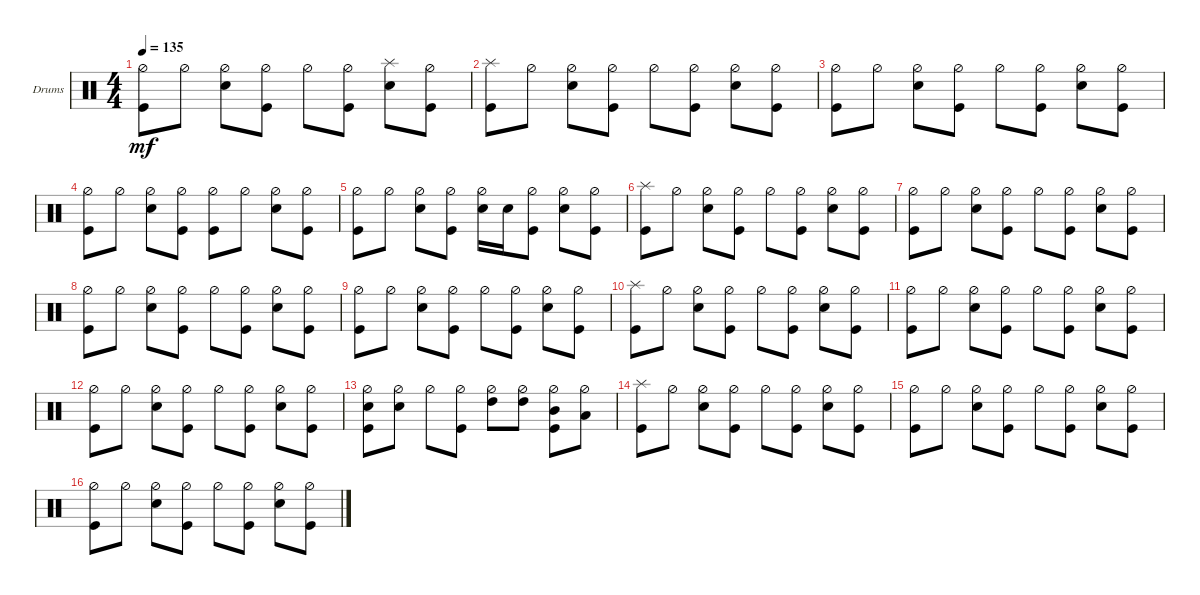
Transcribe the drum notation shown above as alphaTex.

\defaultSystemsLayout 4
\bracketExtendMode groupsimilarinstruments
\firstSystemTrackNameOrientation horizontal
\otherSystemsTrackNameOrientation horizontal
\track ("Drumkit" "Drums") {instrument percussion}
\staff {score}
\articulation defaults
\ts (4 4)
\tempo 135
\clef neutral
\ks c
("Kick (hit)" "Hi-Hat (half)").8{dy mf} "Hi-Hat (half)".8 ("Snare (hit) 2" "Hi-Hat (half)").8 ("Kick (hit)" "Hi-Hat (half)").8 "Hi-Hat (half)".8 ("Kick (hit)" "Hi-Hat (half)").8 ("Snare (hit) 2" "Splash (hit)").8 ("Kick (hit)" "Hi-Hat (half)").8 |
("Kick (hit)" "Splash (hit)").8 "Hi-Hat (half)".8 ("Snare (hit) 2" "Hi-Hat (half)").8 ("Kick (hit)" "Hi-Hat (half)").8 "Hi-Hat (half)".8 ("Kick (hit)" "Hi-Hat (half)").8 ("Snare (hit) 2" "Hi-Hat (half)").8 ("Kick (hit)" "Hi-Hat (half)").8 |
("Kick (hit)" "Hi-Hat (half)").8 "Hi-Hat (half)".8 ("Snare (hit) 2" "Hi-Hat (half)").8 ("Kick (hit)" "Hi-Hat (half)").8 "Hi-Hat (half)".8 ("Kick (hit)" "Hi-Hat (half)").8 ("Snare (hit) 2" "Hi-Hat (half)").8 ("Kick (hit)" "Hi-Hat (half)").8 |
("Kick (hit)" "Hi-Hat (half)").8 "Hi-Hat (half)".8 ("Snare (hit) 2" "Hi-Hat (half)").8 ("Kick (hit)" "Hi-Hat (half)").8 ("Hi-Hat (half)" "Kick (hit)").8 "Hi-Hat (half)".8 ("Snare (hit) 2" "Hi-Hat (half)").8 ("Kick (hit)" "Hi-Hat (half)").8 |
("Kick (hit)" "Hi-Hat (half)").8 "Hi-Hat (half)".8 ("Snare (hit) 2" "Hi-Hat (half)").8 ("Kick (hit)" "Hi-Hat (half)").8 ("Hi-Hat (half)" "Snare (hit) 2").16 "Snare (hit) 2".16 ("Kick (hit)" "Hi-Hat (half)").8 ("Snare (hit) 2" "Hi-Hat (half)").8 ("Kick (hit)" "Hi-Hat (half)").8 |
("Kick (hit)" "Splash (hit)").8 "Hi-Hat (half)".8 ("Snare (hit) 2" "Hi-Hat (half)").8 ("Kick (hit)" "Hi-Hat (half)").8 "Hi-Hat (half)".8 ("Kick (hit)" "Hi-Hat (half)").8 ("Snare (hit) 2" "Hi-Hat (half)").8 ("Kick (hit)" "Hi-Hat (half)").8 |
("Kick (hit)" "Hi-Hat (half)").8 "Hi-Hat (half)".8 ("Snare (hit) 2" "Hi-Hat (half)").8 ("Kick (hit)" "Hi-Hat (half)").8 "Hi-Hat (half)".8 ("Kick (hit)" "Hi-Hat (half)").8 ("Snare (hit) 2" "Hi-Hat (half)").8 ("Kick (hit)" "Hi-Hat (half)").8 |
("Kick (hit)" "Hi-Hat (half)").8 "Hi-Hat (half)".8 ("Snare (hit) 2" "Hi-Hat (half)").8 ("Kick (hit)" "Hi-Hat (half)").8 "Hi-Hat (half)".8 ("Kick (hit)" "Hi-Hat (half)").8 ("Snare (hit) 2" "Hi-Hat (half)").8 ("Kick (hit)" "Hi-Hat (half)").8 |
("Kick (hit)" "Hi-Hat (half)").8 "Hi-Hat (half)".8 ("Snare (hit) 2" "Hi-Hat (half)").8 ("Kick (hit)" "Hi-Hat (half)").8 "Hi-Hat (half)".8 ("Kick (hit)" "Hi-Hat (half)").8 ("Snare (hit) 2" "Hi-Hat (half)").8 ("Kick (hit)" "Hi-Hat (half)").8 |
("Kick (hit)" "Splash (hit)").8 "Hi-Hat (half)".8 ("Snare (hit) 2" "Hi-Hat (half)").8 ("Kick (hit)" "Hi-Hat (half)").8 "Hi-Hat (half)".8 ("Kick (hit)" "Hi-Hat (half)").8 ("Snare (hit) 2" "Hi-Hat (half)").8 ("Kick (hit)" "Hi-Hat (half)").8 |
("Kick (hit)" "Hi-Hat (half)").8 "Hi-Hat (half)".8 ("Snare (hit) 2" "Hi-Hat (half)").8 ("Kick (hit)" "Hi-Hat (half)").8 "Hi-Hat (half)".8 ("Kick (hit)" "Hi-Hat (half)").8 ("Snare (hit) 2" "Hi-Hat (half)").8 ("Kick (hit)" "Hi-Hat (half)").8 |
("Kick (hit)" "Hi-Hat (half)").8 "Hi-Hat (half)".8 ("Snare (hit) 2" "Hi-Hat (half)").8 ("Kick (hit)" "Hi-Hat (half)").8 "Hi-Hat (half)".8 ("Kick (hit)" "Hi-Hat (half)").8 ("Snare (hit) 2" "Hi-Hat (half)").8 ("Kick (hit)" "Hi-Hat (half)").8 |
("Kick (hit)" "Hi-Hat (half)" "Snare (hit) 2").8 ("Hi-Hat (half)" "Snare (hit) 2").8 "Hi-Hat (half)".8 ("Kick (hit)" "Hi-Hat (half)").8 ("Hi-Hat (half)" "High Tom (hit)").8 ("Hi-Hat (half)" "High Tom (hit)").8 ("Hi-Hat (half)" "Mid Tom (hit)" "Kick (hit)").8 ("Hi-Hat (half)" "Low Tom (hit)").8 |
("Kick (hit)" "Splash (hit)").8 "Hi-Hat (half)".8 ("Snare (hit) 2" "Hi-Hat (half)").8 ("Kick (hit)" "Hi-Hat (half)").8 "Hi-Hat (half)".8 ("Kick (hit)" "Hi-Hat (half)").8 ("Snare (hit) 2" "Hi-Hat (half)").8 ("Kick (hit)" "Hi-Hat (half)").8 |
("Kick (hit)" "Hi-Hat (half)").8 "Hi-Hat (half)".8 ("Snare (hit) 2" "Hi-Hat (half)").8 ("Kick (hit)" "Hi-Hat (half)").8 "Hi-Hat (half)".8 ("Kick (hit)" "Hi-Hat (half)").8 ("Snare (hit) 2" "Hi-Hat (half)").8 ("Kick (hit)" "Hi-Hat (half)").8 |
("Kick (hit)" "Hi-Hat (half)").8 "Hi-Hat (half)".8 ("Snare (hit) 2" "Hi-Hat (half)").8 ("Kick (hit)" "Hi-Hat (half)").8 "Hi-Hat (half)".8 ("Kick (hit)" "Hi-Hat (half)").8 ("Snare (hit) 2" "Hi-Hat (half)").8 ("Kick (hit)" "Hi-Hat (half)").8
